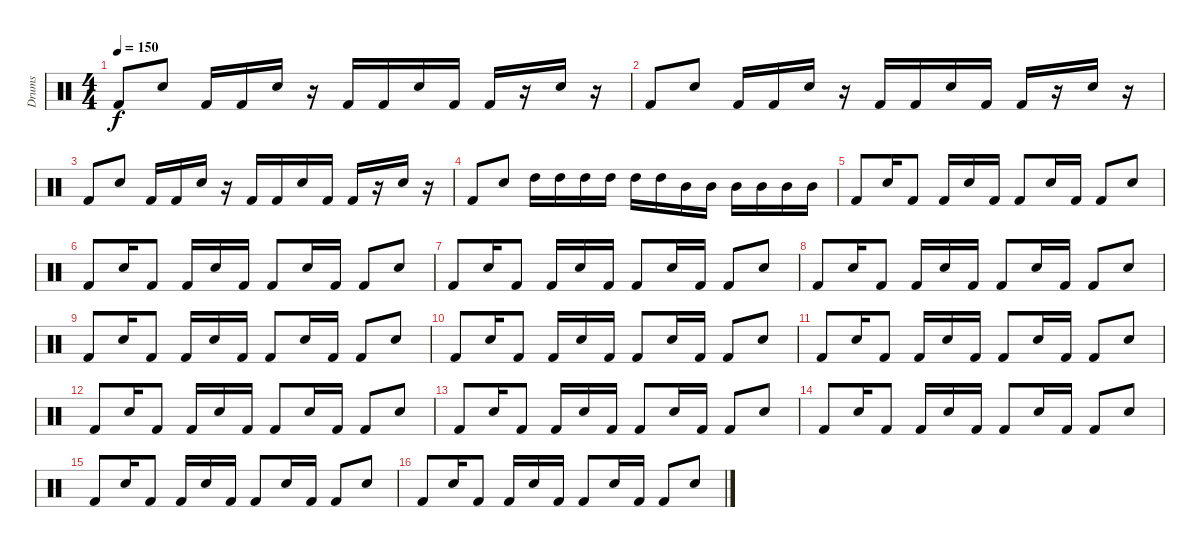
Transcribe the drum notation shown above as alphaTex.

\track ("Drums" "Drums") {instrument percussion}
\staff {score}
\articulation defaults
\ts (4 4)
\tempo 150
\clef neutral
\ks c "Kick (hit) 2".8{dy f} "Snare (hit) 2".8 "Kick (hit) 2".16 "Kick (hit) 2".16 "Snare (hit) 2".16
r.16 "Kick (hit) 2".16 "Kick (hit) 2".16 "Snare (hit) 2".16 "Kick (hit) 2".16 "Kick (hit) 2".16 r.16 "Snare (hit) 2".16 r.16 |
"Kick (hit) 2".8 "Snare (hit) 2".8 "Kick (hit) 2".16 "Kick (hit) 2".16 "Snare (hit) 2".16 r.16 "Kick (hit) 2".16 "Kick (hit) 2".16 "Snare (hit) 2".16 "Kick (hit) 2".16 "Kick (hit) 2".16 r.16 "Snare (hit) 2".16 r.16 |
"Kick (hit) 2".8 "Snare (hit) 2".8 "Kick (hit) 2".16 "Kick (hit) 2".16 "Snare (hit) 2".16 r.16 "Kick (hit) 2".16 "Kick (hit) 2".16 "Snare (hit) 2".16 "Kick (hit) 2".16 "Kick (hit) 2".16 r.16 "Snare (hit) 2".16 r.16 |
"Kick (hit) 2".8 "Snare (hit) 2".8 "High Tom (hit)".16 "High Tom (hit)".16 "High Tom (hit)".16 "High Tom (hit)".16 "High Tom (hit)".16 "High Tom (hit)".16 "Mid Tom (hit)".16 "Mid Tom (hit)".16 "Mid Tom (hit)".16 "Mid Tom (hit)".16 "Mid Tom (hit)".16 "Mid Tom (hit)".16 |
"Kick (hit) 2".8 "Snare (hit) 2".16 "Kick (hit) 2".8 "Kick (hit) 2".16 "Snare (hit) 2".16 "Kick (hit) 2".16 "Kick (hit) 2".8 "Snare (hit) 2".16 "Kick (hit) 2".16 "Kick (hit) 2".8 "Snare (hit) 2".8 |
"Kick (hit) 2".8 "Snare (hit) 2".16 "Kick (hit) 2".8 "Kick (hit) 2".16 "Snare (hit) 2".16 "Kick (hit) 2".16 "Kick (hit) 2".8 "Snare (hit) 2".16 "Kick (hit) 2".16 "Kick (hit) 2".8 "Snare (hit) 2".8 |
"Kick (hit) 2".8 "Snare (hit) 2".16 "Kick (hit) 2".8 "Kick (hit) 2".16 "Snare (hit) 2".16 "Kick (hit) 2".16 "Kick (hit) 2".8 "Snare (hit) 2".16 "Kick (hit) 2".16 "Kick (hit) 2".8 "Snare (hit) 2".8 |
"Kick (hit) 2".8 "Snare (hit) 2".16 "Kick (hit) 2".8 "Kick (hit) 2".16 "Snare (hit) 2".16 "Kick (hit) 2".16 "Kick (hit) 2".8 "Snare (hit) 2".16 "Kick (hit) 2".16 "Kick (hit) 2".8 "Snare (hit) 2".8 |
"Kick (hit) 2".8 "Snare (hit) 2".16 "Kick (hit) 2".8 "Kick (hit) 2".16 "Snare (hit) 2".16 "Kick (hit) 2".16 "Kick (hit) 2".8 "Snare (hit) 2".16 "Kick (hit) 2".16 "Kick (hit) 2".8 "Snare (hit) 2".8 |
"Kick (hit) 2".8 "Snare (hit) 2".16 "Kick (hit) 2".8 "Kick (hit) 2".16 "Snare (hit) 2".16 "Kick (hit) 2".16 "Kick (hit) 2".8 "Snare (hit) 2".16 "Kick (hit) 2".16 "Kick (hit) 2".8 "Snare (hit) 2".8 |
"Kick (hit) 2".8 "Snare (hit) 2".16 "Kick (hit) 2".8 "Kick (hit) 2".16 "Snare (hit) 2".16 "Kick (hit) 2".16 "Kick (hit) 2".8 "Snare (hit) 2".16 "Kick (hit) 2".16 "Kick (hit) 2".8 "Snare (hit) 2".8 |
"Kick (hit) 2".8 "Snare (hit) 2".16 "Kick (hit) 2".8 "Kick (hit) 2".16 "Snare (hit) 2".16 "Kick (hit) 2".16 "Kick (hit) 2".8 "Snare (hit) 2".16 "Kick (hit) 2".16 "Kick (hit) 2".8 "Snare (hit) 2".8 |
"Kick (hit) 2".8 "Snare (hit) 2".16 "Kick (hit) 2".8 "Kick (hit) 2".16 "Snare (hit) 2".16 "Kick (hit) 2".16 "Kick (hit) 2".8 "Snare (hit) 2".16 "Kick (hit) 2".16 "Kick (hit) 2".8 "Snare (hit) 2".8 |
"Kick (hit) 2".8 "Snare (hit) 2".16 "Kick (hit) 2".8 "Kick (hit) 2".16 "Snare (hit) 2".16 "Kick (hit) 2".16 "Kick (hit) 2".8 "Snare (hit) 2".16 "Kick (hit) 2".16 "Kick (hit) 2".8 "Snare (hit) 2".8 |
"Kick (hit) 2".8 "Snare (hit) 2".16 "Kick (hit) 2".8 "Kick (hit) 2".16 "Snare (hit) 2".16 "Kick (hit) 2".16 "Kick (hit) 2".8 "Snare (hit) 2".16 "Kick (hit) 2".16 "Kick (hit) 2".8 "Snare (hit) 2".8 |
"Kick (hit) 2".8 "Snare (hit) 2".16 "Kick (hit) 2".8 "Kick (hit) 2".16 "Snare (hit) 2".16 "Kick (hit) 2".16 "Kick (hit) 2".8 "Snare (hit) 2".16 "Kick (hit) 2".16 "Kick (hit) 2".8 "Snare (hit) 2".8
